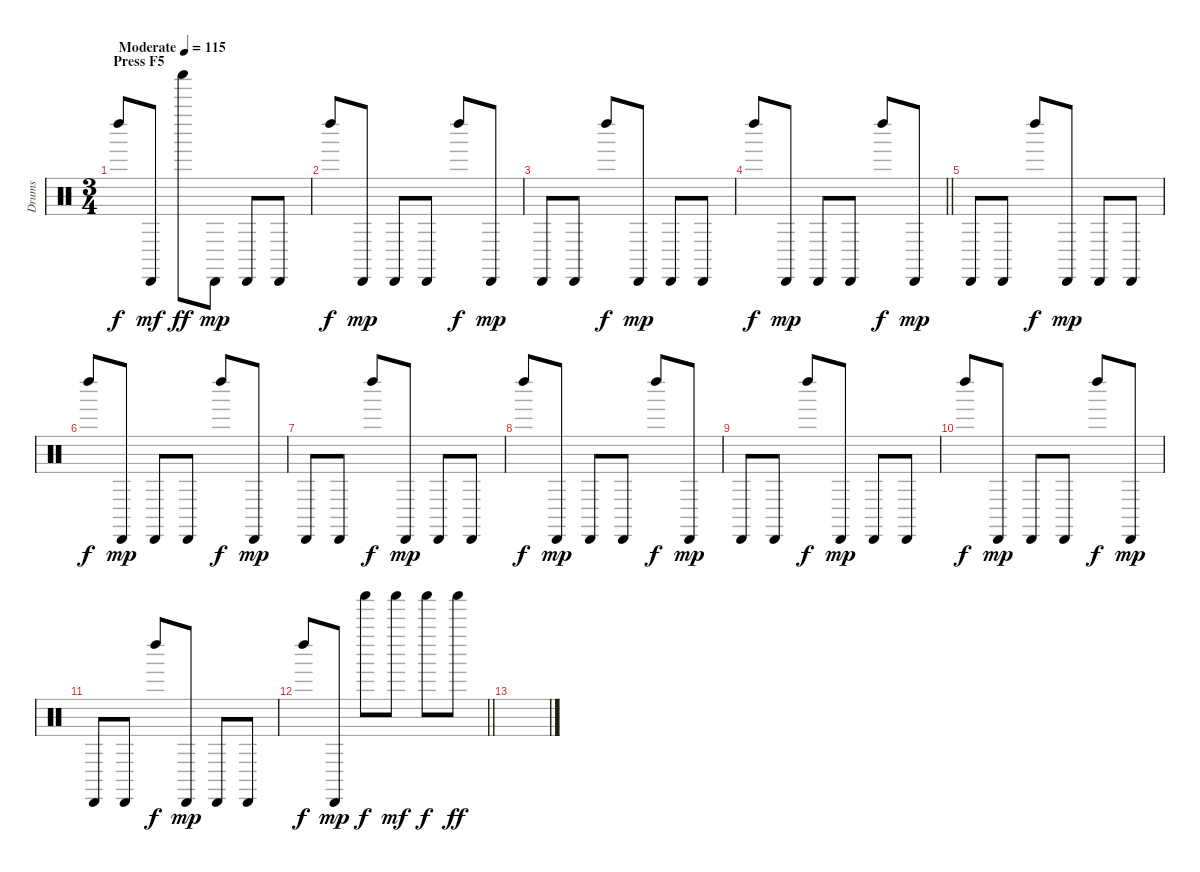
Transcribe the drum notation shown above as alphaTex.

\track ("Drums" "Drums") {instrument percussion}
\staff {score}
\articulation defaults
\ts (3 4)
\section ("" "Press F5")
\tempo (115 "Moderate")
\clef neutral
\ks c "Left Maraca (hit)".8{dy f} "Cabasa (hit)".8{dy mf} "Shaker (hit)".8{dy ff} "Cabasa (hit)".8{dy mp} "Cabasa (hit)".8 "Cabasa (hit)".8
|
"Left Maraca (hit)".8{dy f} "Cabasa (hit)".8{dy mp} "Cabasa (hit)".8 "Cabasa (hit)".8 "Left Maraca (hit)".8{dy f} "Cabasa (hit)".8{dy mp} |
"Cabasa (hit)".8 "Cabasa (hit)".8 "Left Maraca (hit)".8{dy f} "Cabasa (hit)".8{dy mp} "Cabasa (hit)".8 "Cabasa (hit)".8 |
\barLineRight lightlight "Left Maraca (hit)".8{dy f} "Cabasa (hit)".8{dy mp} "Cabasa (hit)".8 "Cabasa (hit)".8 "Left Maraca (hit)".8{dy f} "Cabasa (hit)".8{dy mp}
|
\section ("" "")
"Cabasa (hit)".8 "Cabasa (hit)".8 "Left Maraca (hit)".8{dy f} "Cabasa (hit)".8{dy mp} "Cabasa (hit)".8 "Cabasa (hit)".8 |
"Left Maraca (hit)".8{dy f} "Cabasa (hit)".8{dy mp} "Cabasa (hit)".8 "Cabasa (hit)".8 "Left Maraca (hit)".8{dy f} "Cabasa (hit)".8{dy mp} |
"Cabasa (hit)".8 "Cabasa (hit)".8 "Left Maraca (hit)".8{dy f} "Cabasa (hit)".8{dy mp} "Cabasa (hit)".8 "Cabasa (hit)".8 |
"Left Maraca (hit)".8{dy f} "Cabasa (hit)".8{dy mp} "Cabasa (hit)".8 "Cabasa (hit)".8 "Left Maraca (hit)".8{dy f} "Cabasa (hit)".8{dy mp} |
"Cabasa (hit)".8 "Cabasa (hit)".8 "Left Maraca (hit)".8{dy f} "Cabasa (hit)".8{dy mp} "Cabasa (hit)".8 "Cabasa (hit)".8 |
"Left Maraca (hit)".8{dy f} "Cabasa (hit)".8{dy mp} "Cabasa (hit)".8 "Cabasa (hit)".8 "Left Maraca (hit)".8{dy f} "Cabasa (hit)".8{dy mp} |
"Cabasa (hit)".8 "Cabasa (hit)".8 "Left Maraca (hit)".8{dy f} "Cabasa (hit)".8{dy mp} "Cabasa (hit)".8 "Cabasa (hit)".8 |
\barLineRight lightlight "Left Maraca (hit)".8{dy f} "Cabasa (hit)".8{dy mp} "Shaker (hit)".8{dy f} "Shaker (hit)".8{dy mf} "Shaker (hit)".8{dy f} "Shaker (hit)".8{dy ff}
|
\section ("" "")
